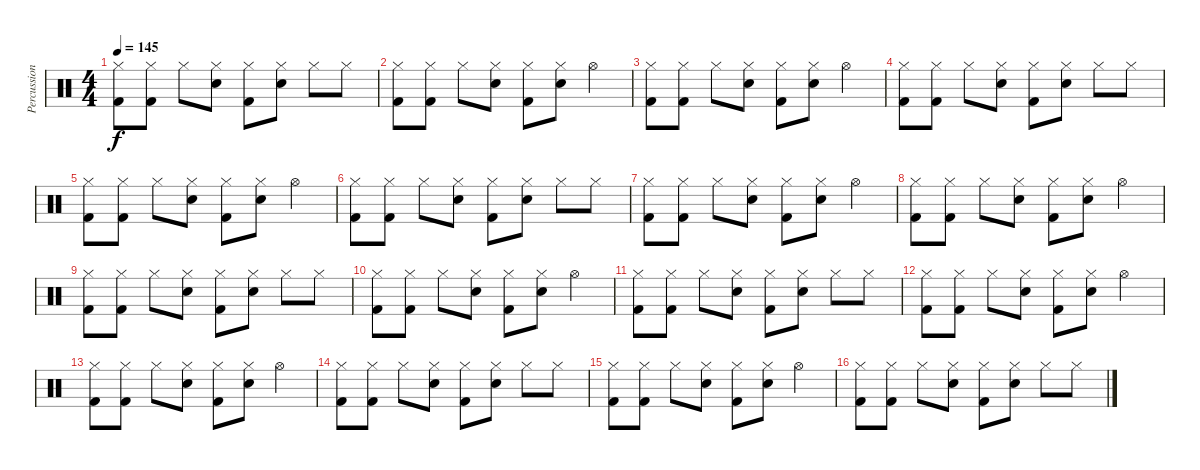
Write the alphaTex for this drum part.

\track ("Percussion" "Percussion") {instrument percussion}
\staff {score}
\articulation defaults
\ts (4 4)
\tempo 145
\clef neutral
\ks c
("Hi-Hat (closed)" "Kick (hit) 2").8{dy f} ("Hi-Hat (closed)" "Kick (hit) 2").8 "Hi-Hat (closed)".8 ("Hi-Hat (closed)" "Electric Snare (hit)").8 ("Hi-Hat (closed)" "Kick (hit) 2").8 ("Hi-Hat (closed)" "Electric Snare (hit)").8 "Hi-Hat (closed)".8 "Hi-Hat (closed)".8 |
("Hi-Hat (closed)" "Kick (hit) 2").8 ("Hi-Hat (closed)" "Kick (hit) 2").8 "Hi-Hat (closed)".8 ("Hi-Hat (closed)" "Electric Snare (hit)").8 ("Hi-Hat (closed)" "Kick (hit) 2").8 ("Hi-Hat (closed)" "Electric Snare (hit)").8 "Hi-Hat (open)".4 |
("Hi-Hat (closed)" "Kick (hit) 2").8 ("Hi-Hat (closed)" "Kick (hit) 2").8 "Hi-Hat (closed)".8 ("Hi-Hat (closed)" "Electric Snare (hit)").8 ("Hi-Hat (closed)" "Kick (hit) 2").8 ("Hi-Hat (closed)" "Electric Snare (hit)").8 "Hi-Hat (open)".4 |
("Hi-Hat (closed)" "Kick (hit) 2").8 ("Hi-Hat (closed)" "Kick (hit) 2").8 "Hi-Hat (closed)".8 ("Hi-Hat (closed)" "Electric Snare (hit)").8 ("Hi-Hat (closed)" "Kick (hit) 2").8 ("Hi-Hat (closed)" "Electric Snare (hit)").8 "Hi-Hat (closed)".8 "Hi-Hat (closed)".8 |
("Hi-Hat (closed)" "Kick (hit) 2").8 ("Hi-Hat (closed)" "Kick (hit) 2").8 "Hi-Hat (closed)".8 ("Hi-Hat (closed)" "Electric Snare (hit)").8 ("Hi-Hat (closed)" "Kick (hit) 2").8 ("Hi-Hat (closed)" "Electric Snare (hit)").8 "Hi-Hat (open)".4 |
("Hi-Hat (closed)" "Kick (hit) 2").8 ("Hi-Hat (closed)" "Kick (hit) 2").8 "Hi-Hat (closed)".8 ("Hi-Hat (closed)" "Electric Snare (hit)").8 ("Hi-Hat (closed)" "Kick (hit) 2").8 ("Hi-Hat (closed)" "Electric Snare (hit)").8 "Hi-Hat (closed)".8 "Hi-Hat (closed)".8 |
("Hi-Hat (closed)" "Kick (hit) 2").8 ("Hi-Hat (closed)" "Kick (hit) 2").8 "Hi-Hat (closed)".8 ("Hi-Hat (closed)" "Electric Snare (hit)").8 ("Hi-Hat (closed)" "Kick (hit) 2").8 ("Hi-Hat (closed)" "Electric Snare (hit)").8 "Hi-Hat (open)".4 |
("Hi-Hat (closed)" "Kick (hit) 2").8 ("Hi-Hat (closed)" "Kick (hit) 2").8 "Hi-Hat (closed)".8 ("Hi-Hat (closed)" "Electric Snare (hit)").8 ("Hi-Hat (closed)" "Kick (hit) 2").8 ("Hi-Hat (closed)" "Electric Snare (hit)").8 "Hi-Hat (open)".4 |
("Hi-Hat (closed)" "Kick (hit) 2").8 ("Hi-Hat (closed)" "Kick (hit) 2").8 "Hi-Hat (closed)".8 ("Hi-Hat (closed)" "Electric Snare (hit)").8 ("Hi-Hat (closed)" "Kick (hit) 2").8 ("Hi-Hat (closed)" "Electric Snare (hit)").8 "Hi-Hat (closed)".8 "Hi-Hat (closed)".8 |
("Hi-Hat (closed)" "Kick (hit) 2").8 ("Hi-Hat (closed)" "Kick (hit) 2").8 "Hi-Hat (closed)".8 ("Hi-Hat (closed)" "Electric Snare (hit)").8 ("Hi-Hat (closed)" "Kick (hit) 2").8 ("Hi-Hat (closed)" "Electric Snare (hit)").8 "Hi-Hat (open)".4 |
("Hi-Hat (closed)" "Kick (hit) 2").8 ("Hi-Hat (closed)" "Kick (hit) 2").8 "Hi-Hat (closed)".8 ("Hi-Hat (closed)" "Electric Snare (hit)").8 ("Hi-Hat (closed)" "Kick (hit) 2").8 ("Hi-Hat (closed)" "Electric Snare (hit)").8 "Hi-Hat (closed)".8 "Hi-Hat (closed)".8 |
("Hi-Hat (closed)" "Kick (hit) 2").8 ("Hi-Hat (closed)" "Kick (hit) 2").8 "Hi-Hat (closed)".8 ("Hi-Hat (closed)" "Electric Snare (hit)").8 ("Hi-Hat (closed)" "Kick (hit) 2").8 ("Hi-Hat (closed)" "Electric Snare (hit)").8 "Hi-Hat (open)".4 |
("Hi-Hat (closed)" "Kick (hit) 2").8 ("Hi-Hat (closed)" "Kick (hit) 2").8 "Hi-Hat (closed)".8 ("Hi-Hat (closed)" "Electric Snare (hit)").8 ("Hi-Hat (closed)" "Kick (hit) 2").8 ("Hi-Hat (closed)" "Electric Snare (hit)").8 "Hi-Hat (open)".4 |
("Hi-Hat (closed)" "Kick (hit) 2").8 ("Hi-Hat (closed)" "Kick (hit) 2").8 "Hi-Hat (closed)".8 ("Hi-Hat (closed)" "Electric Snare (hit)").8 ("Hi-Hat (closed)" "Kick (hit) 2").8 ("Hi-Hat (closed)" "Electric Snare (hit)").8 "Hi-Hat (closed)".8 "Hi-Hat (closed)".8 |
("Hi-Hat (closed)" "Kick (hit) 2").8 ("Hi-Hat (closed)" "Kick (hit) 2").8 "Hi-Hat (closed)".8 ("Hi-Hat (closed)" "Electric Snare (hit)").8 ("Hi-Hat (closed)" "Kick (hit) 2").8 ("Hi-Hat (closed)" "Electric Snare (hit)").8 "Hi-Hat (open)".4 |
("Hi-Hat (closed)" "Kick (hit) 2").8 ("Hi-Hat (closed)" "Kick (hit) 2").8 "Hi-Hat (closed)".8 ("Hi-Hat (closed)" "Electric Snare (hit)").8 ("Hi-Hat (closed)" "Kick (hit) 2").8 ("Hi-Hat (closed)" "Electric Snare (hit)").8 "Hi-Hat (closed)".8 "Hi-Hat (closed)".8
